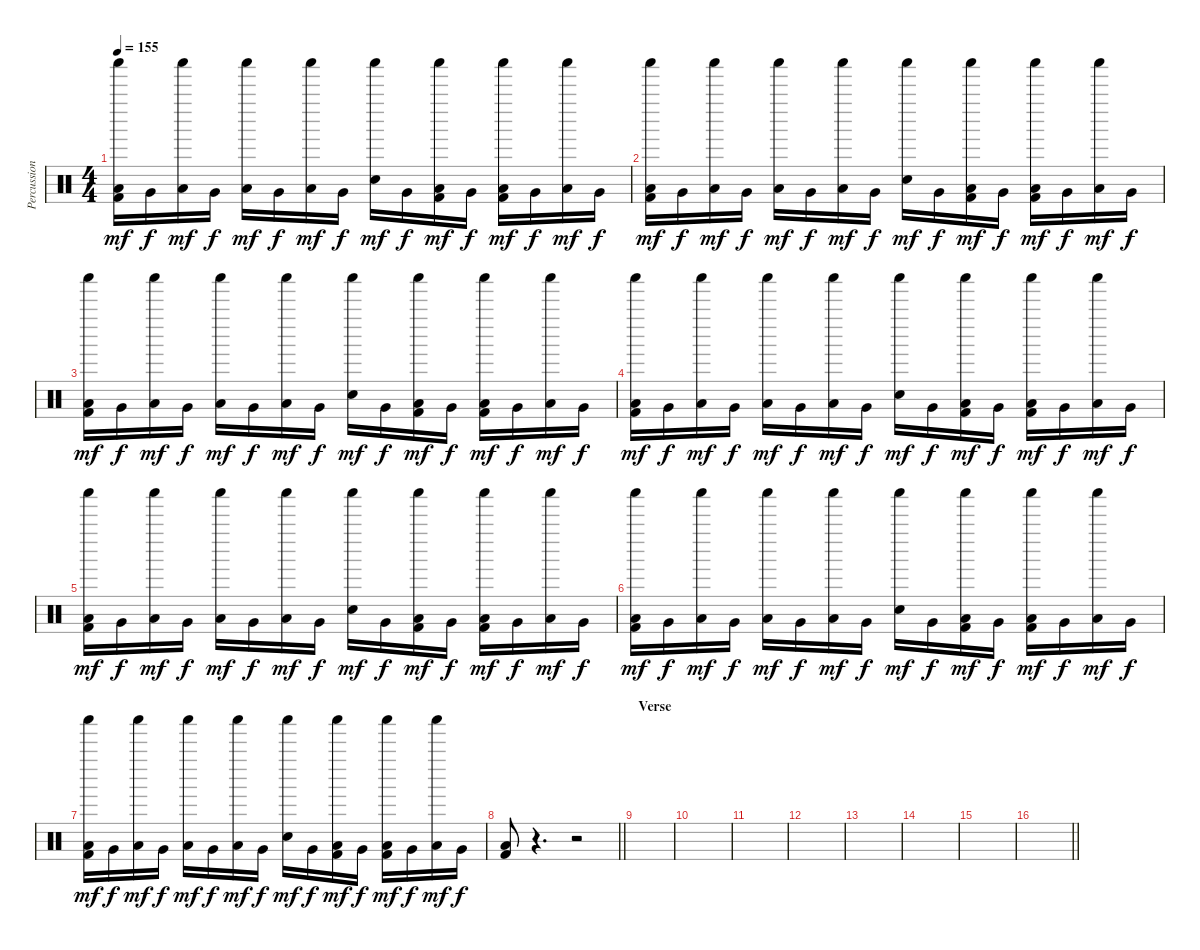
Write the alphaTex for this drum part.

\track ("Percussion" "Percussion") {instrument percussion}
\staff {score}
\articulation defaults
\ts (4 4)
\tempo 155
\clef neutral
\ks c
("Shaker (hit)" "Low Floor Tom (hit)" "Kick (hit) 2").16{dy mf} "Very Low Tom (hit)".16{dy f} ("Shaker (hit)" "Low Floor Tom (hit)").16{dy mf} "Very Low Tom (hit)".16{dy f} ("Shaker (hit)" "Low Floor Tom (hit)").16{dy mf} "Very Low Tom (hit)".16{dy f} ("Shaker (hit)" "Low Floor Tom (hit)").16{dy mf} "Very Low Tom (hit)".16{dy f} ("Shaker (hit)" "Electric Snare (hit)").16{dy mf} "Very Low Tom (hit)".16{dy f} ("Shaker (hit)" "Low Floor Tom (hit)" "Kick (hit) 2").16{dy mf} "Very Low Tom (hit)".16{dy f} ("Shaker (hit)" "Low Floor Tom (hit)" "Kick (hit) 2").16{dy mf} "Very Low Tom (hit)".16{dy f} ("Shaker (hit)" "Low Floor Tom (hit)").16{dy mf} "Very Low Tom (hit)".16{dy f} |
("Shaker (hit)" "Low Floor Tom (hit)" "Kick (hit) 2").16{dy mf} "Very Low Tom (hit)".16{dy f} ("Shaker (hit)" "Low Floor Tom (hit)").16{dy mf} "Very Low Tom (hit)".16{dy f} ("Shaker (hit)" "Low Floor Tom (hit)").16{dy mf} "Very Low Tom (hit)".16{dy f} ("Shaker (hit)" "Low Floor Tom (hit)").16{dy mf} "Very Low Tom (hit)".16{dy f} ("Shaker (hit)" "Electric Snare (hit)").16{dy mf} "Very Low Tom (hit)".16{dy f} ("Shaker (hit)" "Low Floor Tom (hit)" "Kick (hit) 2").16{dy mf} "Very Low Tom (hit)".16{dy f} ("Shaker (hit)" "Low Floor Tom (hit)" "Kick (hit) 2").16{dy mf} "Very Low Tom (hit)".16{dy f} ("Shaker (hit)" "Low Floor Tom (hit)").16{dy mf} "Very Low Tom (hit)".16{dy f} |
("Shaker (hit)" "Low Floor Tom (hit)" "Kick (hit) 2").16{dy mf} "Very Low Tom (hit)".16{dy f} ("Shaker (hit)" "Low Floor Tom (hit)").16{dy mf} "Very Low Tom (hit)".16{dy f} ("Shaker (hit)" "Low Floor Tom (hit)").16{dy mf} "Very Low Tom (hit)".16{dy f} ("Shaker (hit)" "Low Floor Tom (hit)").16{dy mf} "Very Low Tom (hit)".16{dy f} ("Shaker (hit)" "Electric Snare (hit)").16{dy mf} "Very Low Tom (hit)".16{dy f} ("Shaker (hit)" "Low Floor Tom (hit)" "Kick (hit) 2").16{dy mf} "Very Low Tom (hit)".16{dy f} ("Shaker (hit)" "Low Floor Tom (hit)" "Kick (hit) 2").16{dy mf} "Very Low Tom (hit)".16{dy f} ("Shaker (hit)" "Low Floor Tom (hit)").16{dy mf} "Very Low Tom (hit)".16{dy f} |
("Shaker (hit)" "Low Floor Tom (hit)" "Kick (hit) 2").16{dy mf} "Very Low Tom (hit)".16{dy f} ("Shaker (hit)" "Low Floor Tom (hit)").16{dy mf} "Very Low Tom (hit)".16{dy f} ("Shaker (hit)" "Low Floor Tom (hit)").16{dy mf} "Very Low Tom (hit)".16{dy f} ("Shaker (hit)" "Low Floor Tom (hit)").16{dy mf} "Very Low Tom (hit)".16{dy f} ("Shaker (hit)" "Electric Snare (hit)").16{dy mf} "Very Low Tom (hit)".16{dy f} ("Shaker (hit)" "Low Floor Tom (hit)" "Kick (hit) 2").16{dy mf} "Very Low Tom (hit)".16{dy f} ("Shaker (hit)" "Low Floor Tom (hit)" "Kick (hit) 2").16{dy mf} "Very Low Tom (hit)".16{dy f} ("Shaker (hit)" "Low Floor Tom (hit)").16{dy mf} "Very Low Tom (hit)".16{dy f} |
("Shaker (hit)" "Low Floor Tom (hit)" "Kick (hit) 2").16{dy mf} "Very Low Tom (hit)".16{dy f} ("Shaker (hit)" "Low Floor Tom (hit)").16{dy mf} "Very Low Tom (hit)".16{dy f} ("Shaker (hit)" "Low Floor Tom (hit)").16{dy mf} "Very Low Tom (hit)".16{dy f} ("Shaker (hit)" "Low Floor Tom (hit)").16{dy mf} "Very Low Tom (hit)".16{dy f} ("Shaker (hit)" "Electric Snare (hit)").16{dy mf} "Very Low Tom (hit)".16{dy f} ("Shaker (hit)" "Low Floor Tom (hit)" "Kick (hit) 2").16{dy mf} "Very Low Tom (hit)".16{dy f} ("Shaker (hit)" "Low Floor Tom (hit)" "Kick (hit) 2").16{dy mf} "Very Low Tom (hit)".16{dy f} ("Shaker (hit)" "Low Floor Tom (hit)").16{dy mf} "Very Low Tom (hit)".16{dy f} |
("Shaker (hit)" "Low Floor Tom (hit)" "Kick (hit) 2").16{dy mf} "Very Low Tom (hit)".16{dy f} ("Shaker (hit)" "Low Floor Tom (hit)").16{dy mf} "Very Low Tom (hit)".16{dy f} ("Shaker (hit)" "Low Floor Tom (hit)").16{dy mf} "Very Low Tom (hit)".16{dy f} ("Shaker (hit)" "Low Floor Tom (hit)").16{dy mf} "Very Low Tom (hit)".16{dy f} ("Shaker (hit)" "Electric Snare (hit)").16{dy mf} "Very Low Tom (hit)".16{dy f} ("Shaker (hit)" "Low Floor Tom (hit)" "Kick (hit) 2").16{dy mf} "Very Low Tom (hit)".16{dy f} ("Shaker (hit)" "Low Floor Tom (hit)" "Kick (hit) 2").16{dy mf} "Very Low Tom (hit)".16{dy f} ("Shaker (hit)" "Low Floor Tom (hit)").16{dy mf} "Very Low Tom (hit)".16{dy f} |
("Shaker (hit)" "Low Floor Tom (hit)" "Kick (hit) 2").16{dy mf} "Very Low Tom (hit)".16{dy f} ("Shaker (hit)" "Low Floor Tom (hit)").16{dy mf} "Very Low Tom (hit)".16{dy f} ("Shaker (hit)" "Low Floor Tom (hit)").16{dy mf} "Very Low Tom (hit)".16{dy f} ("Shaker (hit)" "Low Floor Tom (hit)").16{dy mf} "Very Low Tom (hit)".16{dy f} ("Shaker (hit)" "Electric Snare (hit)").16{dy mf} "Very Low Tom (hit)".16{dy f} ("Shaker (hit)" "Low Floor Tom (hit)" "Kick (hit) 2").16{dy mf} "Very Low Tom (hit)".16{dy f} ("Shaker (hit)" "Low Floor Tom (hit)" "Kick (hit) 2").16{dy mf} "Very Low Tom (hit)".16{dy f} ("Shaker (hit)" "Low Floor Tom (hit)").16{dy mf} "Very Low Tom (hit)".16{dy f} |
\barLineRight lightlight
("Low Floor Tom (hit)" "Kick (hit) 2").8 r.4{d} r.2 |
\section ("" "Verse")
|
|
|
|
|
|
|
\barLineRight lightlight
